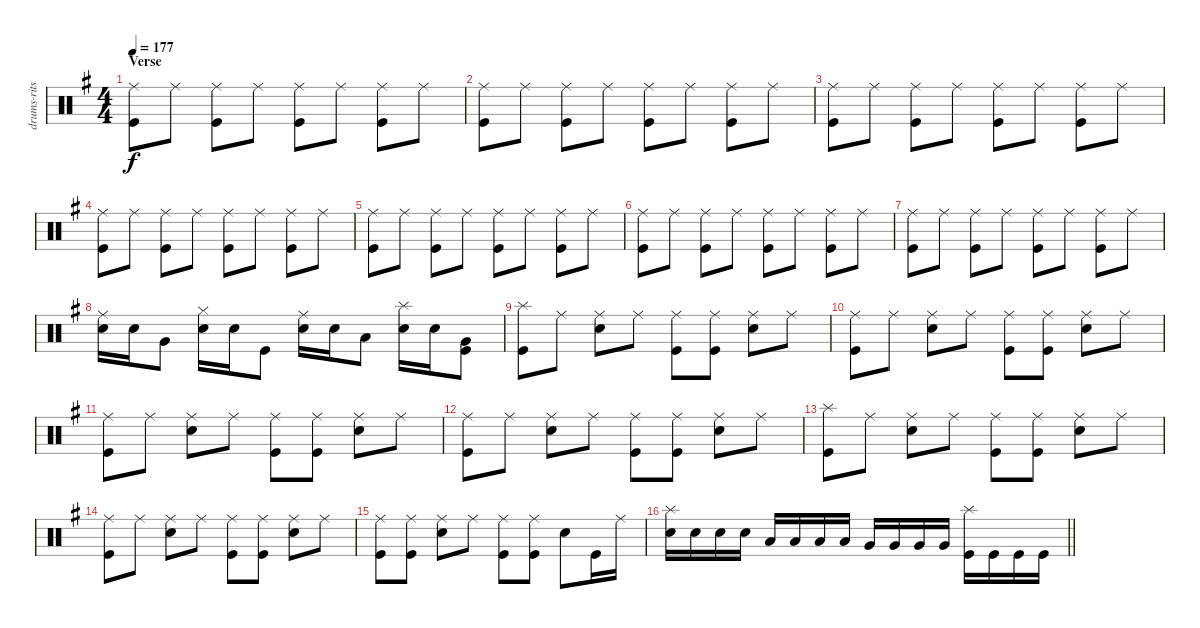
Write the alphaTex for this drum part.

\track ("drums-ritsu takana" "drums-rits") {instrument percussion}
\staff {score}
\articulation defaults
\ts (4 4)
\section ("" "Verse")
\tempo 177
\clef neutral
\ks eminor
("Kick (hit)" "Ride (middle)").8{dy f} "Ride (middle)".8 ("Kick (hit)" "Ride (middle)").8 "Ride (middle)".8 ("Kick (hit)" "Ride (middle)").8 "Ride (middle)".8 ("Kick (hit)" "Ride (middle)").8 "Ride (middle)".8 |
("Kick (hit)" "Ride (middle)").8 "Ride (middle)".8 ("Kick (hit)" "Ride (middle)").8 "Ride (middle)".8 ("Kick (hit)" "Ride (middle)").8 "Ride (middle)".8 ("Kick (hit)" "Ride (middle)").8 "Ride (middle)".8 |
("Kick (hit)" "Ride (middle)").8 "Ride (middle)".8 ("Kick (hit)" "Ride (middle)").8 "Ride (middle)".8 ("Kick (hit)" "Ride (middle)").8 "Ride (middle)".8 ("Kick (hit)" "Ride (middle)").8 "Ride (middle)".8 |
("Kick (hit)" "Ride (middle)").8 "Ride (middle)".8 ("Kick (hit)" "Ride (middle)").8 "Ride (middle)".8 ("Kick (hit)" "Ride (middle)").8 "Ride (middle)".8 ("Kick (hit)" "Ride (middle)").8 "Ride (middle)".8 |
("Kick (hit)" "Ride (middle)").8 "Ride (middle)".8 ("Kick (hit)" "Ride (middle)").8 "Ride (middle)".8 ("Kick (hit)" "Ride (middle)").8 "Ride (middle)".8 ("Kick (hit)" "Ride (middle)").8 "Ride (middle)".8 |
("Kick (hit)" "Ride (middle)").8 "Ride (middle)".8 ("Kick (hit)" "Ride (middle)").8 "Ride (middle)".8 ("Kick (hit)" "Ride (middle)").8 "Ride (middle)".8 ("Kick (hit)" "Ride (middle)").8 "Ride (middle)".8 |
("Kick (hit)" "Ride (middle)").8 "Ride (middle)".8 ("Kick (hit)" "Ride (middle)").8 "Ride (middle)".8 ("Kick (hit)" "Ride (middle)").8 "Ride (middle)".8 ("Kick (hit)" "Ride (middle)").8 "Ride (middle)".8 |
("Snare (hit) 2" "Ride (middle)").16 "Snare (hit) 2".16 "Very Low Tom (hit)".8 ("Snare (hit) 2" "Hi-Hat (closed)").16 "Snare (hit) 2".16 "Kick (hit)".8 ("Snare (hit) 2" "Ride (middle)").16 "Snare (hit) 2".16 "Low Tom (hit)".8 ("Snare (hit) 2" "Splash (hit)").16 "Snare (hit) 2".16 ("Kick (hit)" "Very Low Tom (hit)").8 |
("Kick (hit)" "Splash (hit)").8 "Ride (middle)".8 ("Ride (middle)" "Snare (hit) 2").8 "Ride (middle)".8 ("Kick (hit)" "Ride (middle)").8 ("Ride (middle)" "Kick (hit)").8 ("Ride (middle)" "Snare (hit) 2").8 "Ride (middle)".8 |
("Kick (hit)" "Ride (middle)").8 "Ride (middle)".8 ("Ride (middle)" "Snare (hit) 2").8 "Ride (middle)".8 ("Kick (hit)" "Ride (middle)").8 ("Ride (middle)" "Kick (hit)").8 ("Ride (middle)" "Snare (hit) 2").8 "Ride (middle)".8 |
("Kick (hit)" "Ride (middle)").8 "Ride (middle)".8 ("Ride (middle)" "Snare (hit) 2").8 "Ride (middle)".8 ("Kick (hit)" "Ride (middle)").8 ("Ride (middle)" "Kick (hit)").8 ("Ride (middle)" "Snare (hit) 2").8 "Ride (middle)".8 |
("Kick (hit)" "Ride (middle)").8 "Ride (middle)".8 ("Ride (middle)" "Snare (hit) 2").8 "Ride (middle)".8 ("Kick (hit)" "Ride (middle)").8 ("Ride (middle)" "Kick (hit)").8 ("Ride (middle)" "Snare (hit) 2").8 "Ride (middle)".8 |
("Kick (hit)" "Splash (hit)").8 "Ride (middle)".8 ("Ride (middle)" "Snare (hit) 2").8 "Ride (middle)".8 ("Kick (hit)" "Ride (middle)").8 ("Ride (middle)" "Kick (hit)").8 ("Ride (middle)" "Snare (hit) 2").8 "Ride (middle)".8 |
("Kick (hit)" "Ride (middle)").8 "Ride (middle)".8 ("Ride (middle)" "Snare (hit) 2").8 "Ride (middle)".8 ("Kick (hit)" "Ride (middle)").8 ("Ride (middle)" "Kick (hit)").8 ("Ride (middle)" "Snare (hit) 2").8 "Ride (middle)".8 |
("Kick (hit)" "Ride (middle)").8 ("Ride (middle)" "Kick (hit)").8 ("Ride (middle)" "Snare (hit) 2").8 "Ride (middle)".8 ("Kick (hit)" "Ride (middle)").8 ("Ride (middle)" "Kick (hit)").8 "Snare (hit) 2".8 "Kick (hit)".16 "Ride (middle)".16 |
\barLineRight lightlight
("Snare (hit) 2" "Splash (hit)").16 "Snare (hit) 2".16 "Snare (hit) 2".16 "Snare (hit) 2".16 "Low Tom (hit)".16 "Low Tom (hit)".16 "Low Tom (hit)".16 "Low Tom (hit)".16 "Very Low Tom (hit)".16 "Very Low Tom (hit)".16 "Very Low Tom (hit)".16 "Very Low Tom (hit)".16 ("Splash (hit)" "Kick (hit)").16 "Kick (hit)".16 "Kick (hit)".16 "Kick (hit)".16
